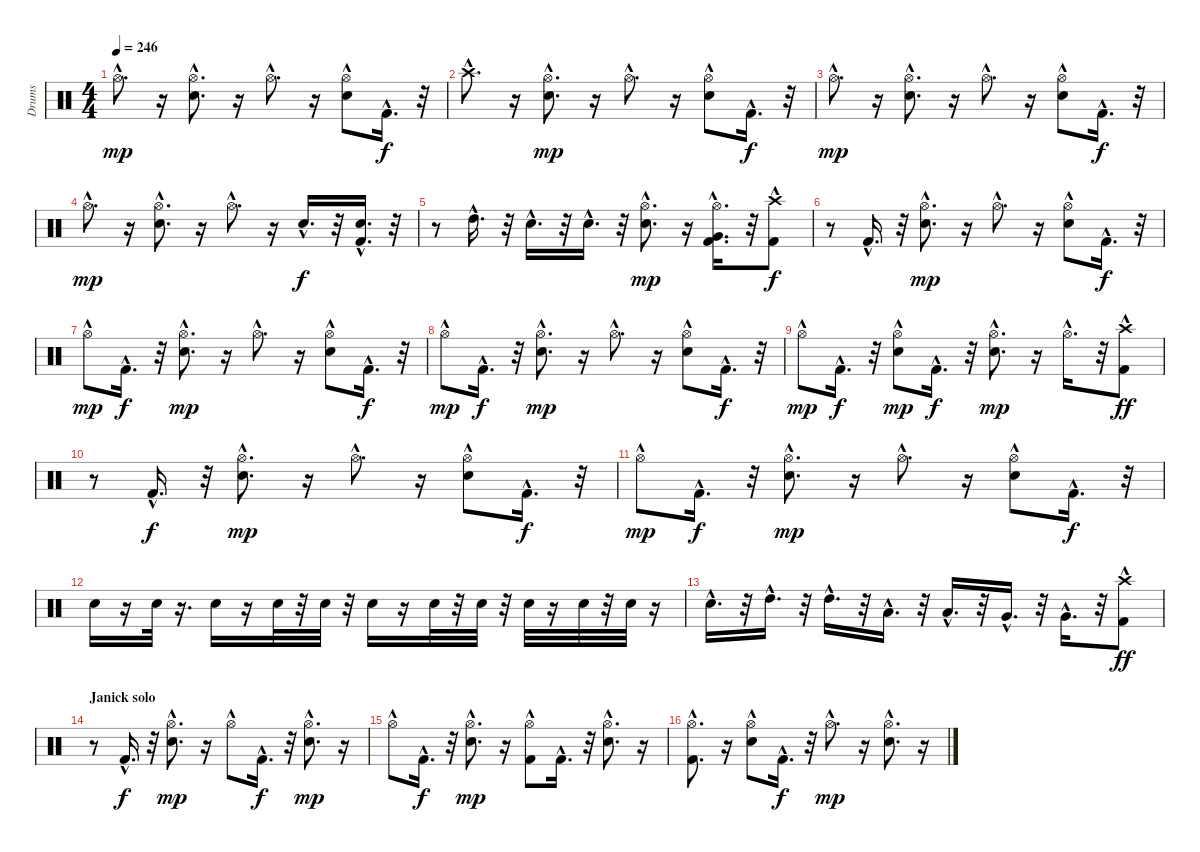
\track ("Drums" "Drums") {instrument percussion}
\staff {score}
\articulation defaults
\ts (4 4)
\tempo 246
\clef neutral
\ks c "Hi-Hat (open)"{hac}.8{d dy mp}
r.16 ("Hi-Hat (open)"{hac} "Electric Snare (hit)"{hac}).8{d} r.16 "Hi-Hat (open)"{hac}.8{d} r.16 ("Hi-Hat (open)"{hac} "Electric Snare (hit)"{hac}).8 "Kick (hit) 2"{hac}.16{d dy f} r.32 |
"Crash high (hit)"{hac}.8{d} r.16 ("Electric Snare (hit)"{hac} "Hi-Hat (open)"{hac}).8{d dy mp} r.16 "Hi-Hat (open)"{hac}.8{d} r.16 ("Hi-Hat (open)"{hac} "Electric Snare (hit)"{hac}).8 "Kick (hit) 2"{hac}.16{d dy f} r.32 |
"Hi-Hat (open)"{hac}.8{d dy mp} r.16 ("Hi-Hat (open)"{hac} "Electric Snare (hit)"{hac}).8{d} r.16 "Hi-Hat (open)"{hac}.8{d} r.16 ("Hi-Hat (open)"{hac} "Electric Snare (hit)"{hac}).8 "Kick (hit) 2"{hac}.16{d dy f} r.32 |
"Hi-Hat (open)"{hac}.8{d dy mp} r.16 ("Hi-Hat (open)"{hac} "Electric Snare (hit)"{hac}).8{d} r.16 "Hi-Hat (open)"{hac}.8{d} r.16 "Electric Snare (hit)"{hac}.16{d dy f} r.32 ("Kick (hit) 2"{hac} "Electric Snare (hit)"{hac}).16{d} r.32 |
r.8 "High Tom (hit)"{hac}.16{d} r.32 "Electric Snare (hit)"{hac}.16{d} r.32 "Electric Snare (hit)"{hac}.16{d} r.32 ("Hi-Hat (open)"{hac} "Electric Snare (hit)"{hac}).8{d dy mp} r.16 ("Hi-Hat (open)"{hac} "Kick (hit) 2"{hac} "Very Low Tom (hit)"{hac}).16{d} r.32 ("Kick (hit) 2"{hac} "Crash high (hit)").8{dy f} |
r.8 "Kick (hit) 2"{hac}.16{d} r.32 ("Electric Snare (hit)"{hac} "Hi-Hat (open)"{hac}).8{d dy mp} r.16 "Hi-Hat (open)"{hac}.8{d} r.16 ("Electric Snare (hit)"{hac} "Hi-Hat (open)"{hac}).8 "Kick (hit) 2"{hac}.16{d dy f} r.32 |
"Hi-Hat (open)"{hac}.8{dy mp} "Kick (hit) 2"{hac}.16{d dy f} r.32 ("Electric Snare (hit)"{hac} "Hi-Hat (open)"{hac}).8{d dy mp} r.16 "Hi-Hat (open)"{hac}.8{d} r.16 ("Electric Snare (hit)"{hac} "Hi-Hat (open)"{hac}).8 "Kick (hit) 2"{hac}.16{d dy f} r.32 |
"Hi-Hat (open)"{hac}.8{dy mp} "Kick (hit) 2"{hac}.16{d dy f} r.32 ("Electric Snare (hit)"{hac} "Hi-Hat (open)"{hac}).8{d dy mp} r.16 "Hi-Hat (open)"{hac}.8{d} r.16 ("Electric Snare (hit)"{hac} "Hi-Hat (open)"{hac}).8 "Kick (hit) 2"{hac}.16{d dy f} r.32 |
"Hi-Hat (open)"{hac}.8{dy mp} "Kick (hit) 2"{hac}.16{d dy f} r.32 ("Electric Snare (hit)"{hac} "Hi-Hat (open)"{hac}).8{dy mp} "Kick (hit) 2"{hac}.16{d dy f} r.32 ("Electric Snare (hit)"{hac} "Hi-Hat (open)"{hac}).8{d dy mp} r.16 "Hi-Hat (open)"{hac}.16{d} r.32 ("Crash high (hit)" "Kick (hit) 2"{hac}).8{dy ff} |
r.8 "Kick (hit) 2"{hac}.16{d dy f} r.32 ("Electric Snare (hit)"{hac} "Hi-Hat (open)"{hac}).8{d dy mp} r.16 "Hi-Hat (open)"{hac}.8{d} r.16 ("Electric Snare (hit)"{hac} "Hi-Hat (open)"{hac}).8 "Kick (hit) 2"{hac}.16{d dy f} r.32 |
"Hi-Hat (open)"{hac}.8{dy mp} "Kick (hit) 2"{hac}.16{d dy f} r.32 ("Electric Snare (hit)"{hac} "Hi-Hat (open)"{hac}).8{d dy mp} r.16 "Hi-Hat (open)"{hac}.8{d} r.16 ("Electric Snare (hit)"{hac} "Hi-Hat (open)"{hac}).8 "Kick (hit) 2"{hac}.16{d dy f} r.32 |
"Electric Snare (hit)".16 r.16 "Electric Snare (hit)".32 r.16{d} "Electric Snare (hit)".16 r.16 "Electric Snare (hit)".32 r.32 "Electric Snare (hit)".32 r.32 "Electric Snare (hit)".16 r.16 "Electric Snare (hit)".32 r.32 "Electric Snare (hit)".32 r.32 "Electric Snare (hit)".32 r.16 "Electric Snare (hit)".32 r.32 "Electric Snare (hit)".32 r.16 |
"Electric Snare (hit)"{hac}.16{d} r.32 "High Tom (hit)"{hac}.16{d} r.32 "High Tom (hit)"{hac}.16{d} r.32 "Low Tom (hit)"{hac}.16{d} r.32 "Low Tom (hit)"{hac}.16{d} r.32 "Very Low Tom (hit)"{hac}.16{d} r.32 "Very Low Tom (hit)"{hac}.16{d} r.32 ("Kick (hit) 2"{hac} "Crash high (hit)").8{dy ff} |
\section ("" "Janick solo")
r.8 "Kick (hit) 2"{hac}.16{d dy f} r.32 ("Electric Snare (hit)"{hac} "Hi-Hat (open)"{hac}).8{d dy mp} r.16 "Hi-Hat (open)"{hac}.8 "Kick (hit) 2"{hac}.16{d dy f} r.32 ("Electric Snare (hit)"{hac} "Hi-Hat (open)"{hac}).8{d dy mp} r.16 |
"Hi-Hat (open)"{hac}.8 "Kick (hit) 2"{hac}.16{d dy f} r.32 ("Electric Snare (hit)"{hac} "Hi-Hat (open)"{hac}).8{d dy mp} r.16 ("Kick (hit) 2"{hac} "Hi-Hat (open)"{hac}).8 "Kick (hit) 2"{hac}.16{d} r.32 ("Electric Snare (hit)"{hac} "Hi-Hat (open)"{hac}).8{d} r.16 |
("Hi-Hat (open)"{hac} "Kick (hit) 2"{hac}).8{d} r.16 ("Hi-Hat (open)"{hac} "Electric Snare (hit)"{hac}).8 "Kick (hit) 2"{hac}.16{d dy f} r.32 "Hi-Hat (open)"{hac}.8{d dy mp} r.16 ("Hi-Hat (open)"{hac} "Electric Snare (hit)"{hac}).8{d} r.16
